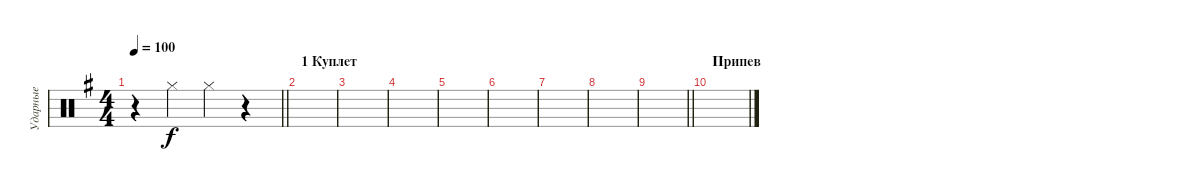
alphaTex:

\track ("Ударные" "Ударные") {instrument percussion}
\staff {score}
\articulation defaults
\ts (4 4)
\tempo 100
\clef neutral
\barLineRight lightlight
\ks eminor
r.4{dy f} "Hi-Hat (closed)".4 "Hi-Hat (closed)".4 r.4 |
\section ("" "1 Куплет")
|
|
|
|
|
|
|
\barLineRight lightlight
|
\section ("" "Припев")
